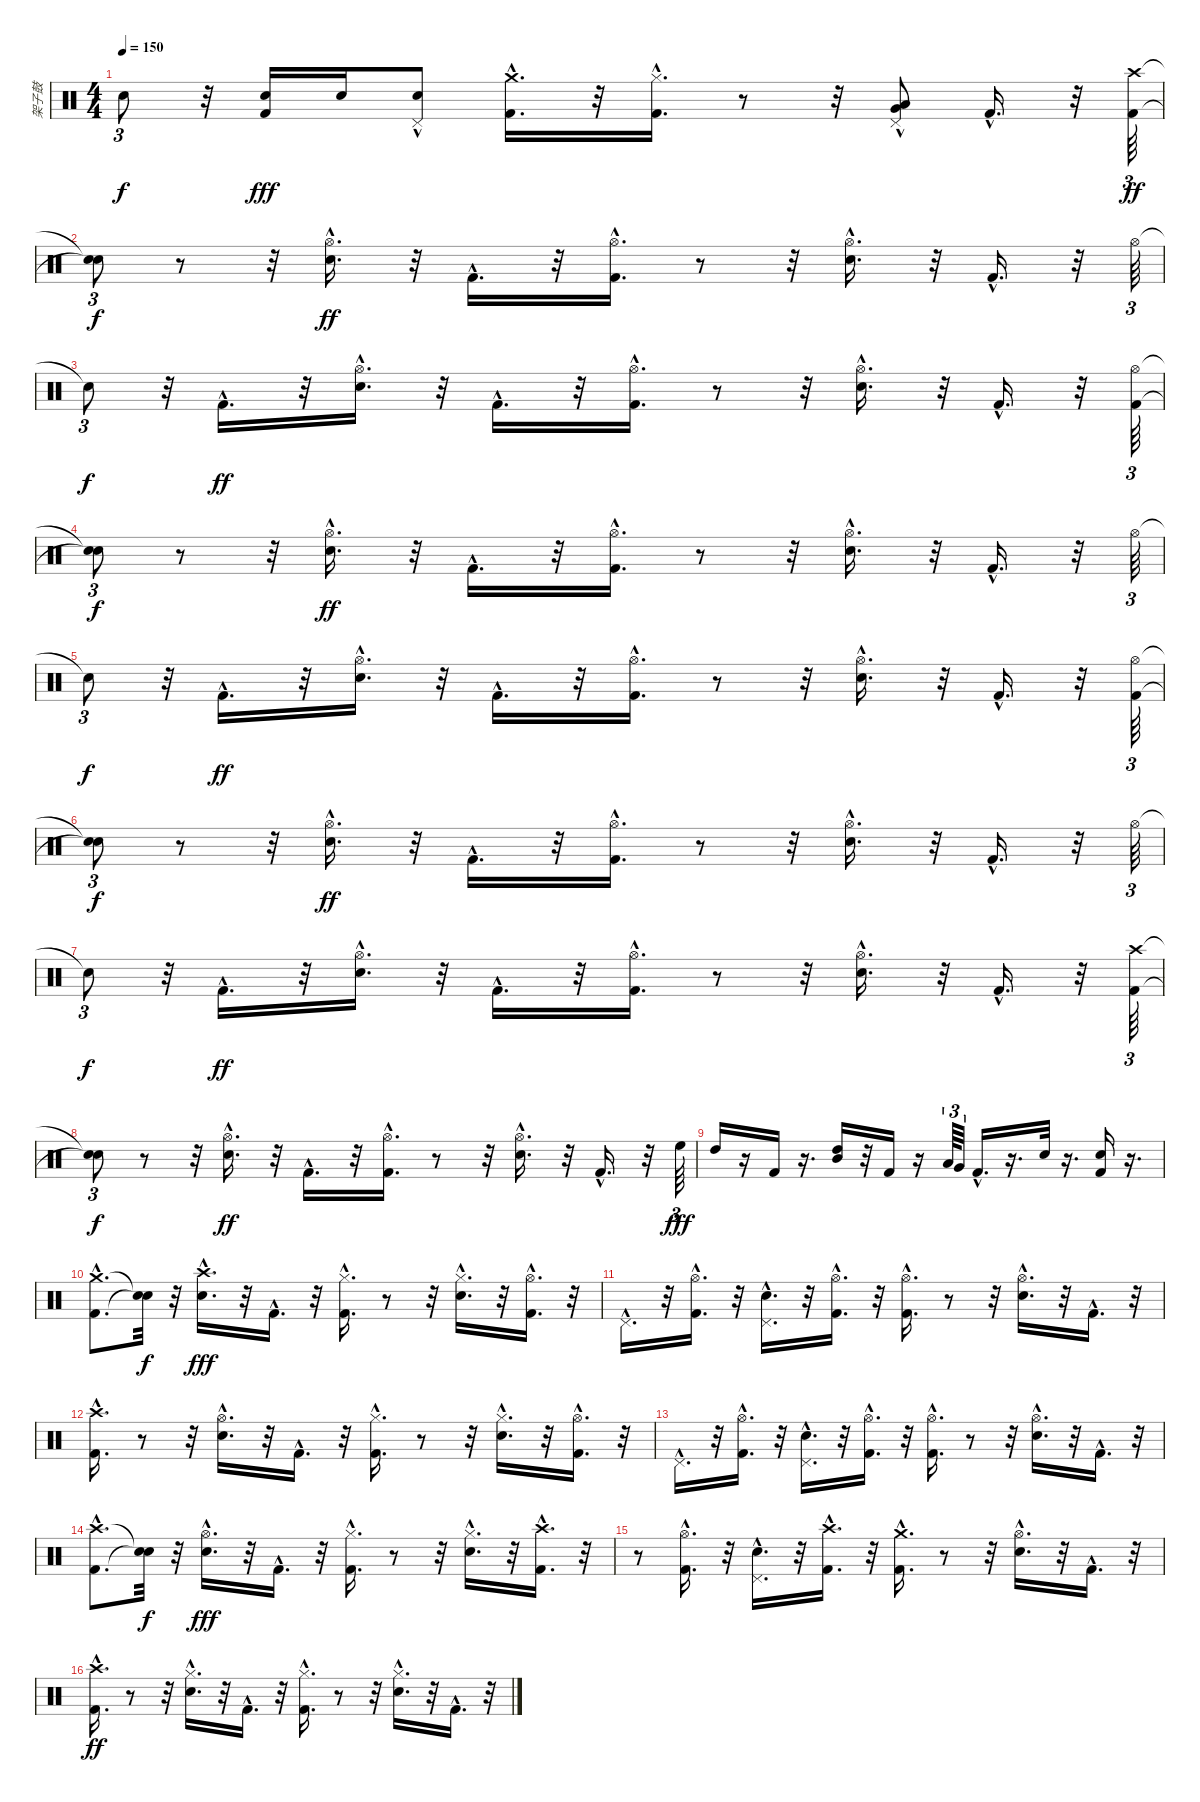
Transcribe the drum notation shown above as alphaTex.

\track ("架子鼓" "架子鼓") {instrument percussion}
\staff {score}
\articulation defaults
\ts (4 4)
\tempo 150
\clef neutral
\ks c "Snare (hit)"{t}.8{tu (3 2) dy f}
r.32 ("Kick (hit) 2" "Snare (hit) 2").16{dy fff} "Snare (hit) 2".16 ("Snare (hit) 2"{hac} "Pedal Hi-Hat (hit)"{hac}).8 ("Kick (hit) 2"{hac} "Crash medium (hit)"{hac}).16{d} r.32 ("Kick (hit) 2"{hac} "Hi-Hat (closed)"{hac}).16{d} r.8 r.32 ("Low Tom (hit)"{hac} "Very Low Tom (hit)"{hac} "Pedal Hi-Hat (hit)"{hac}).8 "Kick (hit) 2"{hac}.16{d} r.32 ("Kick (hit) 2" "Crash high (hit)").64{tu (3 2) dy ff} |
("Snare (hit)"{t} "Snare (hit)"{t}).8{tu (3 2) dy f} r.8 r.32 ("Snare (hit) 2"{hac} "Hi-Hat (open)"{hac}).16{d dy ff} r.32 "Kick (hit) 2"{hac}.16{d} r.32 ("Kick (hit) 2"{hac} "Hi-Hat (open)"{hac}).16{d} r.8 r.32 ("Hi-Hat (open)"{hac} "Snare (hit) 2"{hac}).16{d} r.32 "Kick (hit) 2"{hac}.16{d} r.32 "Hi-Hat (open)".64{tu (3 2)} |
"Snare (hit)"{t}.8{tu (3 2) dy f} r.32 "Kick (hit) 2"{hac}.16{d dy ff} r.32 ("Hi-Hat (open)"{hac} "Snare (hit) 2"{hac}).16{d} r.32 "Kick (hit) 2"{hac}.16{d} r.32 ("Hi-Hat (open)"{hac} "Kick (hit) 2"{hac}).16{d} r.8 r.32 ("Snare (hit) 2"{hac} "Hi-Hat (open)"{hac}).16{d} r.32 "Kick (hit) 2"{hac}.16{d} r.32 ("Hi-Hat (open)" "Kick (hit) 2").64{tu (3 2)} |
("Snare (hit)"{t} "Snare (hit)"{t}).8{tu (3 2) dy f} r.8 r.32 ("Snare (hit) 2"{hac} "Hi-Hat (open)"{hac}).16{d dy ff} r.32 "Kick (hit) 2"{hac}.16{d} r.32 ("Kick (hit) 2"{hac} "Hi-Hat (open)"{hac}).16{d} r.8 r.32 ("Snare (hit) 2"{hac} "Hi-Hat (open)"{hac}).16{d} r.32 "Kick (hit) 2"{hac}.16{d} r.32 "Hi-Hat (open)".64{tu (3 2)} |
"Snare (hit)"{t}.8{tu (3 2) dy f} r.32 "Kick (hit) 2"{hac}.16{d dy ff} r.32 ("Snare (hit) 2"{hac} "Hi-Hat (open)"{hac}).16{d} r.32 "Kick (hit) 2"{hac}.16{d} r.32 ("Kick (hit) 2"{hac} "Hi-Hat (open)"{hac}).16{d} r.8 r.32 ("Snare (hit) 2"{hac} "Hi-Hat (open)"{hac}).16{d} r.32 "Kick (hit) 2"{hac}.16{d} r.32 ("Hi-Hat (open)" "Kick (hit) 2").64{tu (3 2)} |
("Snare (hit)"{t} "Snare (hit)"{t}).8{tu (3 2) dy f} r.8 r.32 ("Snare (hit) 2"{hac} "Hi-Hat (open)"{hac}).16{d dy ff} r.32 "Kick (hit) 2"{hac}.16{d} r.32 ("Kick (hit) 2"{hac} "Hi-Hat (open)"{hac}).16{d} r.8 r.32 ("Snare (hit) 2"{hac} "Hi-Hat (open)"{hac}).16{d} r.32 "Kick (hit) 2"{hac}.16{d} r.32 "Hi-Hat (open)".64{tu (3 2)} |
"Snare (hit)"{t}.8{tu (3 2) dy f} r.32 "Kick (hit) 2"{hac}.16{d dy ff} r.32 ("Snare (hit) 2"{hac} "Hi-Hat (open)"{hac}).16{d} r.32 "Kick (hit) 2"{hac}.16{d} r.32 ("Kick (hit) 2"{hac} "Hi-Hat (open)"{hac}).16{d} r.8 r.32 ("Snare (hit) 2"{hac} "Hi-Hat (open)"{hac}).16{d} r.32 "Kick (hit) 2"{hac}.16{d} r.32 ("Kick (hit) 2" "Crash high (hit)").64{tu (3 2)} |
("Snare (hit)"{t} "Snare (hit)"{t}).8{tu (3 2) dy f} r.8 r.32 ("Snare (hit) 2"{hac} "Hi-Hat (open)"{hac}).16{d dy ff} r.32 "Kick (hit) 2"{hac}.16{d} r.32 ("Kick (hit) 2"{hac} "Hi-Hat (open)"{hac}).16{d} r.8 r.32 ("Hi-Hat (open)"{hac} "Snare (hit) 2"{hac}).16{d} r.32 "Kick (hit) 2"{hac}.16{d} r.32 "High Floor Tom (hit)".64{tu (3 2) dy fff} |
"High Tom (hit)".16 r.16 "Kick (hit) 2".16 r.16{d} ("High Tom (hit)" "Mid Tom (hit)").16 r.32 "Kick (hit) 2".16 r.16 "Low Tom (hit)".64{tu (3 2)} "Very Low Tom (hit)".32{tu (3 2)} "Kick (hit) 2"{hac}.16{d} r.16{d} "Snare (hit) 2".32 r.16{d} ("Snare (hit) 2" "Kick (hit) 2").16 r.16{d} |
("Crash medium (hit)"{hac} "Kick (hit) 2"{hac}).8{d} ("Snare (hit)"{t} "Snare (hit)"{t}).32{dy f} r.32 ("Electric Snare (hit)"{hac} "Crash high (hit)"{hac}).16{d dy fff} r.32 "Kick (hit) 2"{hac}.16{d} r.32 ("Kick (hit) 2"{hac} "Hi-Hat (closed)"{hac}).16{d} r.8 r.32 ("Electric Snare (hit)"{hac} "Hi-Hat (closed)"{hac}).16{d} r.32 ("Kick (hit) 2"{hac} "Hi-Hat (open)"{hac}).16{d} r.32 |
"Pedal Hi-Hat (hit)"{hac}.16{d} r.32 ("Hi-Hat (open)"{hac} "Kick (hit) 2"{hac}).16{d} r.32 ("Electric Snare (hit)"{hac} "Pedal Hi-Hat (hit)"{hac}).16{d} r.32 ("Kick (hit) 2"{hac} "Hi-Hat (open)"{hac}).16{d} r.32 ("Hi-Hat (open)"{hac} "Kick (hit) 2"{hac}).16{d} r.8 r.32 ("Hi-Hat (open)"{hac} "Electric Snare (hit)"{hac}).16{d} r.32 "Kick (hit) 2"{hac}.16{d} r.32 |
("Crash high (hit)"{hac} "Kick (hit) 2"{hac}).16{d} r.8 r.32 ("Electric Snare (hit)"{hac} "Hi-Hat (open)"{hac}).16{d} r.32 "Kick (hit) 2"{hac}.16{d} r.32 ("Kick (hit) 2"{hac} "Hi-Hat (closed)"{hac}).16{d} r.8 r.32 ("Hi-Hat (closed)"{hac} "Electric Snare (hit)"{hac}).16{d} r.32 ("Kick (hit) 2"{hac} "Hi-Hat (open)"{hac}).16{d} r.32 |
"Pedal Hi-Hat (hit)"{hac}.16{d} r.32 ("Kick (hit) 2"{hac} "Hi-Hat (open)"{hac}).16{d} r.32 ("Electric Snare (hit)"{hac} "Pedal Hi-Hat (hit)"{hac}).16{d} r.32 ("Kick (hit) 2"{hac} "Hi-Hat (open)"{hac}).16{d} r.32 ("Kick (hit) 2"{hac} "Hi-Hat (open)"{hac}).16{d} r.8 r.32 ("Electric Snare (hit)"{hac} "Hi-Hat (open)"{hac}).16{d} r.32 "Kick (hit) 2"{hac}.16{d} r.32 |
("Kick (hit) 2"{hac} "Crash high (hit)"{hac}).8{d} ("Snare (hit)"{t} "Snare (hit)"{t}).32{dy f} r.32 ("Electric Snare (hit)"{hac} "Hi-Hat (open)"{hac}).16{d dy fff} r.32 "Kick (hit) 2"{hac}.16{d} r.32 ("Kick (hit) 2"{hac} "Hi-Hat (closed)"{hac}).16{d} r.8 r.32 ("Hi-Hat (closed)"{hac} "Electric Snare (hit)"{hac}).16{d} r.32 ("Kick (hit) 2"{hac} "Crash high (hit)"{hac}).16{d} r.32 |
r.8 ("Kick (hit) 2"{hac} "Hi-Hat (open)"{hac}).16{d} r.32 ("Electric Snare (hit)"{hac} "Pedal Hi-Hat (hit)"{hac}).16{d} r.32 ("Crash high (hit)"{hac} "Kick (hit) 2"{hac}).16{d} r.32 ("Crash medium (hit)"{hac} "Kick (hit) 2"{hac}).16{d} r.8 r.32 ("Electric Snare (hit)"{hac} "Hi-Hat (open)"{hac}).16{d} r.32 "Kick (hit) 2"{hac}.16{d} r.32 |
("Kick (hit) 2"{hac} "Crash high (hit)"{hac}).16{d dy ff} r.8 r.32 ("Snare (hit) 2"{hac} "Hi-Hat (closed)"{hac}).16{d} r.32 "Kick (hit) 2"{hac}.16{d} r.32 ("Hi-Hat (closed)"{hac} "Kick (hit) 2"{hac}).16{d} r.8 r.32 ("Snare (hit) 2"{hac} "Hi-Hat (closed)"{hac}).16{d} r.32 "Kick (hit) 2"{hac}.16{d} r.32
